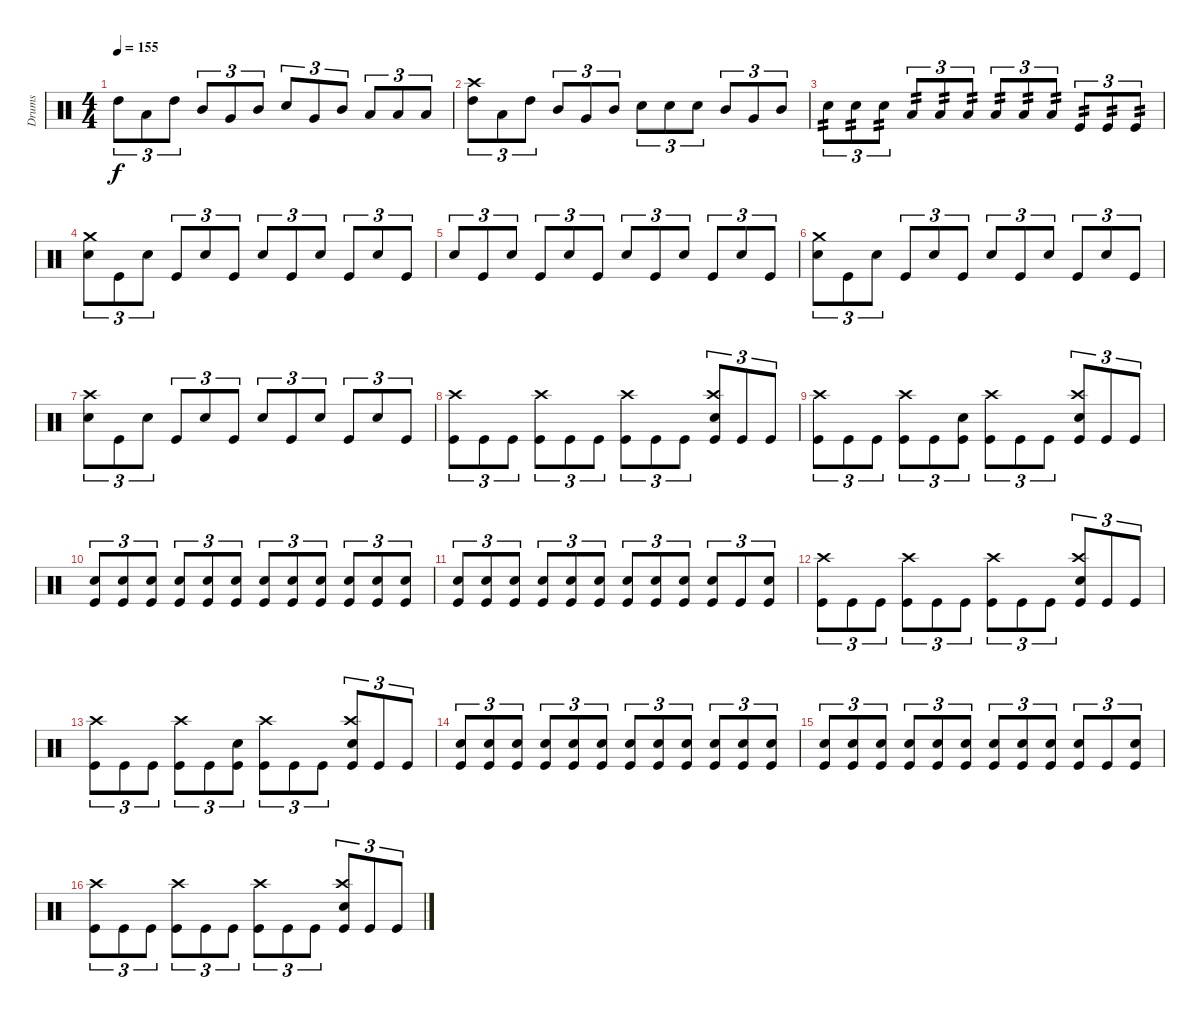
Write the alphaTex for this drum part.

\track ("Drums" "Drums") {instrument percussion}
\staff {score}
\articulation defaults
\ts (4 4)
\tempo 155
\clef neutral
\ks c "High Tom (hit)".8{tu (3 2) dy f} "Low Tom (hit)".8{tu (3 2)} "High Tom (hit)".8{tu (3 2)} "Mid Tom (hit)".8{tu (3 2)} "Very Low Tom (hit)".8{tu (3 2)} "Mid Tom (hit)".8{tu (3 2)} "Electric Snare (hit)".8{tu (3 2)} "Very Low Tom (hit)".8{tu (3 2)} "Mid Tom (hit)".8{tu (3 2)} "Low Tom (hit)".8{tu (3 2)} "Low Floor Tom (hit)".8{tu (3 2)} "Low Tom (hit)".8{tu (3 2)}
|
("Crash high (hit)" "High Tom (hit)").8{tu (3 2)} "Low Tom (hit)".8{tu (3 2)} "High Tom (hit)".8{tu (3 2)} "Mid Tom (hit)".8{tu (3 2)} "Very Low Tom (hit)".8{tu (3 2)} "Mid Tom (hit)".8{tu (3 2)} "Electric Snare (hit)".8{tu (3 2)} "Electric Snare (hit)".8{tu (3 2)} "Electric Snare (hit)".8{tu (3 2)} "Mid Tom (hit)".8{tu (3 2)} "Very Low Tom (hit)".8{tu (3 2)} "Mid Tom (hit)".8{tu (3 2)} |
"Electric Snare (hit)".8{tu (3 2) tp 2} "Electric Snare (hit)".8{tu (3 2) tp 2} "Electric Snare (hit)".8{tu (3 2) tp 2} "Low Tom (hit)".8{tu (3 2) tp 2} "Low Tom (hit)".8{tu (3 2) tp 2} "Low Tom (hit)".8{tu (3 2) tp 2} "Low Floor Tom (hit)".8{tu (3 2) tp 2} "Low Floor Tom (hit)".8{tu (3 2) tp 2} "Low Floor Tom (hit)".8{tu (3 2) tp 2} "Kick (hit)".8{tu (3 2) tp 2} "Kick (hit)".8{tu (3 2) tp 2} "Kick (hit)".8{tu (3 2) tp 2} |
("Crash medium (hit)" "Electric Snare (hit)").8{tu (3 2)} "Kick (hit)".8{tu (3 2)} "Electric Snare (hit)".8{tu (3 2)} "Kick (hit)".8{tu (3 2)} "Electric Snare (hit)".8{tu (3 2)} "Kick (hit)".8{tu (3 2)} "Electric Snare (hit)".8{tu (3 2)} "Kick (hit)".8{tu (3 2)} "Electric Snare (hit)".8{tu (3 2)} "Kick (hit)".8{tu (3 2)} "Electric Snare (hit)".8{tu (3 2)} "Kick (hit)".8{tu (3 2)} |
"Electric Snare (hit)".8{tu (3 2)} "Kick (hit)".8{tu (3 2)} "Electric Snare (hit)".8{tu (3 2)} "Kick (hit)".8{tu (3 2)} "Electric Snare (hit)".8{tu (3 2)} "Kick (hit)".8{tu (3 2)} "Electric Snare (hit)".8{tu (3 2)} "Kick (hit)".8{tu (3 2)} "Electric Snare (hit)".8{tu (3 2)} "Kick (hit)".8{tu (3 2)} "Electric Snare (hit)".8{tu (3 2)} "Kick (hit)".8{tu (3 2)} |
("Crash medium (hit)" "Electric Snare (hit)").8{tu (3 2)} "Kick (hit)".8{tu (3 2)} "Electric Snare (hit)".8{tu (3 2)} "Kick (hit)".8{tu (3 2)} "Electric Snare (hit)".8{tu (3 2)} "Kick (hit)".8{tu (3 2)} "Electric Snare (hit)".8{tu (3 2)} "Kick (hit)".8{tu (3 2)} "Electric Snare (hit)".8{tu (3 2)} "Kick (hit)".8{tu (3 2)} "Electric Snare (hit)".8{tu (3 2)} "Kick (hit)".8{tu (3 2)} |
("Crash high (hit)" "Electric Snare (hit)").8{tu (3 2)} "Kick (hit)".8{tu (3 2)} "Electric Snare (hit)".8{tu (3 2)} "Kick (hit)".8{tu (3 2)} "Electric Snare (hit)".8{tu (3 2)} "Kick (hit)".8{tu (3 2)} "Electric Snare (hit)".8{tu (3 2)} "Kick (hit)".8{tu (3 2)} "Electric Snare (hit)".8{tu (3 2)} "Kick (hit)".8{tu (3 2)} "Electric Snare (hit)".8{tu (3 2)} "Kick (hit)".8{tu (3 2)} |
("Crash high (hit)" "Kick (hit)").8{tu (3 2)} "Kick (hit)".8{tu (3 2)} "Kick (hit)".8{tu (3 2)} ("Crash high (hit)" "Kick (hit)").8{tu (3 2)} "Kick (hit)".8{tu (3 2)} "Kick (hit)".8{tu (3 2)} ("Crash high (hit)" "Kick (hit)").8{tu (3 2)} "Kick (hit)".8{tu (3 2)} "Kick (hit)".8{tu (3 2)} ("Crash high (hit)" "Electric Snare (hit)" "Kick (hit)").8{tu (3 2)} "Kick (hit)".8{tu (3 2)} "Kick (hit)".8{tu (3 2)} |
("Crash high (hit)" "Kick (hit)").8{tu (3 2)} "Kick (hit)".8{tu (3 2)} "Kick (hit)".8{tu (3 2)} ("Crash high (hit)" "Kick (hit)").8{tu (3 2)} "Kick (hit)".8{tu (3 2)} ("Electric Snare (hit)" "Kick (hit)").8{tu (3 2)} ("Crash high (hit)" "Kick (hit)").8{tu (3 2)} "Kick (hit)".8{tu (3 2)} "Kick (hit)".8{tu (3 2)} ("Crash high (hit)" "Electric Snare (hit)" "Kick (hit)").8{tu (3 2)} "Kick (hit)".8{tu (3 2)} "Kick (hit)".8{tu (3 2)} |
("Electric Snare (hit)" "Kick (hit)").8{tu (3 2)} ("Electric Snare (hit)" "Kick (hit)").8{tu (3 2)} ("Electric Snare (hit)" "Kick (hit)").8{tu (3 2)} ("Electric Snare (hit)" "Kick (hit)").8{tu (3 2)} ("Electric Snare (hit)" "Kick (hit)").8{tu (3 2)} ("Electric Snare (hit)" "Kick (hit)").8{tu (3 2)} ("Electric Snare (hit)" "Kick (hit)").8{tu (3 2)} ("Electric Snare (hit)" "Kick (hit)").8{tu (3 2)} ("Electric Snare (hit)" "Kick (hit)").8{tu (3 2)} ("Electric Snare (hit)" "Kick (hit)").8{tu (3 2)} ("Electric Snare (hit)" "Kick (hit)").8{tu (3 2)} ("Electric Snare (hit)" "Kick (hit)").8{tu (3 2)} |
("Electric Snare (hit)" "Kick (hit)").8{tu (3 2)} ("Electric Snare (hit)" "Kick (hit)").8{tu (3 2)} ("Electric Snare (hit)" "Kick (hit)").8{tu (3 2)} ("Electric Snare (hit)" "Kick (hit)").8{tu (3 2)} ("Electric Snare (hit)" "Kick (hit)").8{tu (3 2)} ("Electric Snare (hit)" "Kick (hit)").8{tu (3 2)} ("Electric Snare (hit)" "Kick (hit)").8{tu (3 2)} ("Electric Snare (hit)" "Kick (hit)").8{tu (3 2)} ("Electric Snare (hit)" "Kick (hit)").8{tu (3 2)} ("Electric Snare (hit)" "Kick (hit)").8{tu (3 2)} "Kick (hit)".8{tu (3 2)} ("Electric Snare (hit)" "Kick (hit)").8{tu (3 2)} |
("Crash high (hit)" "Kick (hit)").8{tu (3 2)} "Kick (hit)".8{tu (3 2)} "Kick (hit)".8{tu (3 2)} ("Crash high (hit)" "Kick (hit)").8{tu (3 2)} "Kick (hit)".8{tu (3 2)} "Kick (hit)".8{tu (3 2)} ("Crash high (hit)" "Kick (hit)").8{tu (3 2)} "Kick (hit)".8{tu (3 2)} "Kick (hit)".8{tu (3 2)} ("Crash high (hit)" "Electric Snare (hit)" "Kick (hit)").8{tu (3 2)} "Kick (hit)".8{tu (3 2)} "Kick (hit)".8{tu (3 2)} |
("Crash high (hit)" "Kick (hit)").8{tu (3 2)} "Kick (hit)".8{tu (3 2)} "Kick (hit)".8{tu (3 2)} ("Crash high (hit)" "Kick (hit)").8{tu (3 2)} "Kick (hit)".8{tu (3 2)} ("Electric Snare (hit)" "Kick (hit)").8{tu (3 2)} ("Crash high (hit)" "Kick (hit)").8{tu (3 2)} "Kick (hit)".8{tu (3 2)} "Kick (hit)".8{tu (3 2)} ("Crash high (hit)" "Electric Snare (hit)" "Kick (hit)").8{tu (3 2)} "Kick (hit)".8{tu (3 2)} "Kick (hit)".8{tu (3 2)} |
("Electric Snare (hit)" "Kick (hit)").8{tu (3 2)} ("Electric Snare (hit)" "Kick (hit)").8{tu (3 2)} ("Electric Snare (hit)" "Kick (hit)").8{tu (3 2)} ("Electric Snare (hit)" "Kick (hit)").8{tu (3 2)} ("Electric Snare (hit)" "Kick (hit)").8{tu (3 2)} ("Electric Snare (hit)" "Kick (hit)").8{tu (3 2)} ("Electric Snare (hit)" "Kick (hit)").8{tu (3 2)} ("Electric Snare (hit)" "Kick (hit)").8{tu (3 2)} ("Electric Snare (hit)" "Kick (hit)").8{tu (3 2)} ("Electric Snare (hit)" "Kick (hit)").8{tu (3 2)} ("Electric Snare (hit)" "Kick (hit)").8{tu (3 2)} ("Electric Snare (hit)" "Kick (hit)").8{tu (3 2)} |
("Electric Snare (hit)" "Kick (hit)").8{tu (3 2)} ("Electric Snare (hit)" "Kick (hit)").8{tu (3 2)} ("Electric Snare (hit)" "Kick (hit)").8{tu (3 2)} ("Electric Snare (hit)" "Kick (hit)").8{tu (3 2)} ("Electric Snare (hit)" "Kick (hit)").8{tu (3 2)} ("Electric Snare (hit)" "Kick (hit)").8{tu (3 2)} ("Electric Snare (hit)" "Kick (hit)").8{tu (3 2)} ("Electric Snare (hit)" "Kick (hit)").8{tu (3 2)} ("Electric Snare (hit)" "Kick (hit)").8{tu (3 2)} ("Electric Snare (hit)" "Kick (hit)").8{tu (3 2)} "Kick (hit)".8{tu (3 2)} ("Electric Snare (hit)" "Kick (hit)").8{tu (3 2)} |
("Crash high (hit)" "Kick (hit)").8{tu (3 2)} "Kick (hit)".8{tu (3 2)} "Kick (hit)".8{tu (3 2)} ("Crash high (hit)" "Kick (hit)").8{tu (3 2)} "Kick (hit)".8{tu (3 2)} "Kick (hit)".8{tu (3 2)} ("Crash high (hit)" "Kick (hit)").8{tu (3 2)} "Kick (hit)".8{tu (3 2)} "Kick (hit)".8{tu (3 2)} ("Crash high (hit)" "Electric Snare (hit)" "Kick (hit)").8{tu (3 2)} "Kick (hit)".8{tu (3 2)} "Kick (hit)".8{tu (3 2)}
